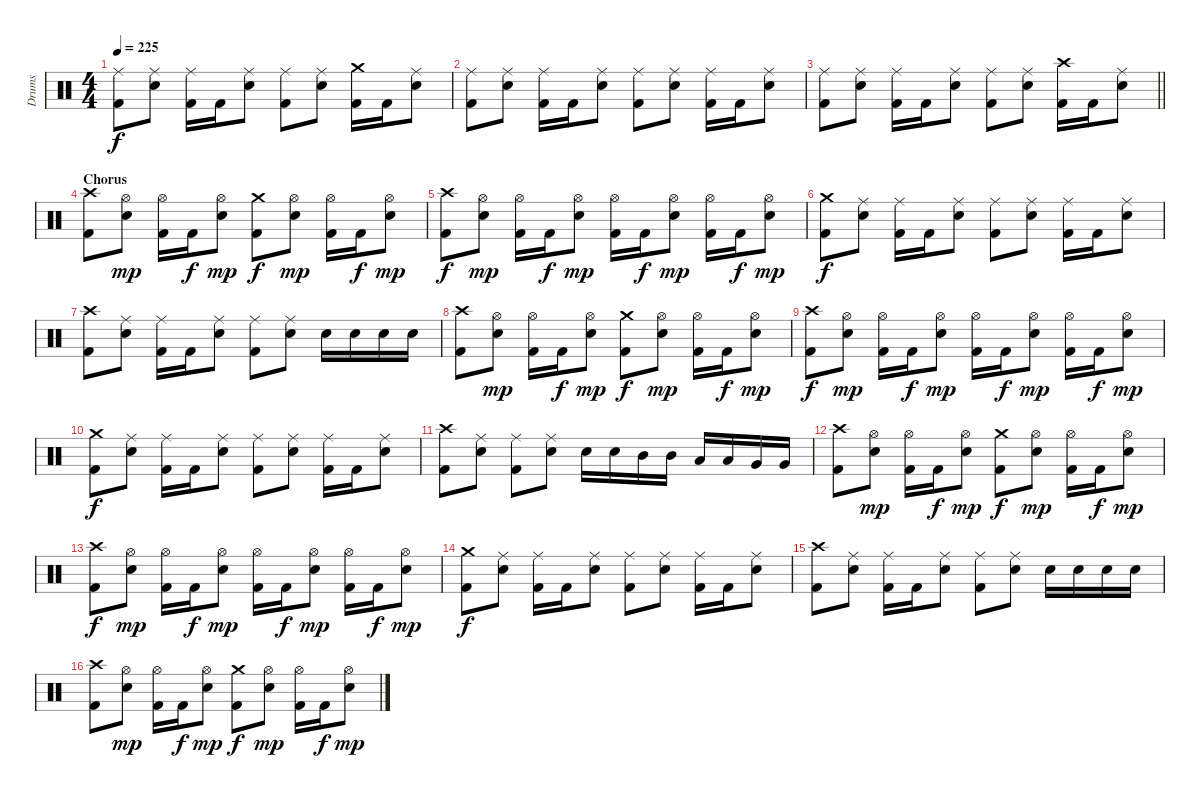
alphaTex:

\track ("Drums" "Drums") {instrument percussion}
\staff {score}
\articulation defaults
\ts (4 4)
\tempo 225
\clef neutral
\ks c
("Ride (middle)" "Kick (hit) 2").8{dy f} ("Ride (middle)" "Snare (hit) 2").8 ("Ride (middle)" "Kick (hit) 2").16 "Kick (hit) 2".16 ("Ride (middle)" "Snare (hit) 2").8 ("Ride (middle)" "Kick (hit) 2").8 ("Ride (middle)" "Snare (hit) 2").8 ("Crash medium (hit)" "Kick (hit) 2").16 "Kick (hit) 2".16 ("Ride (middle)" "Snare (hit) 2").8 |
("Ride (middle)" "Kick (hit) 2").8 ("Ride (middle)" "Snare (hit) 2").8 ("Ride (middle)" "Kick (hit) 2").16 "Kick (hit) 2".16 ("Ride (middle)" "Snare (hit) 2").8 ("Ride (middle)" "Kick (hit) 2").8 ("Ride (middle)" "Snare (hit) 2").8 ("Ride (middle)" "Kick (hit) 2").16 "Kick (hit) 2".16 ("Ride (middle)" "Snare (hit) 2").8 |
\barLineRight lightlight
("Ride (middle)" "Kick (hit) 2").8 ("Ride (middle)" "Snare (hit) 2").8 ("Ride (middle)" "Kick (hit) 2").16 "Kick (hit) 2".16 ("Ride (middle)" "Snare (hit) 2").8 ("Ride (middle)" "Kick (hit) 2").8 ("Ride (middle)" "Snare (hit) 2").8 ("Crash high (hit)" "Kick (hit) 2").16 "Kick (hit) 2".16 ("Ride (middle)" "Snare (hit) 2").8 |
\section ("" "Chorus")
("Crash high (hit)" "Kick (hit) 2").8 ("Hi-Hat (open)" "Snare (hit) 2").8{dy mp} ("Hi-Hat (open)" "Kick (hit) 2").16 "Kick (hit) 2".16{dy f} ("Hi-Hat (open)" "Snare (hit) 2").8{dy mp} ("Crash medium (hit)" "Kick (hit) 2").8{dy f} ("Hi-Hat (open)" "Snare (hit) 2").8{dy mp} ("Hi-Hat (open)" "Kick (hit) 2").16 "Kick (hit) 2".16{dy f} ("Hi-Hat (open)" "Snare (hit) 2").8{dy mp} |
("Crash high (hit)" "Kick (hit) 2").8{dy f} ("Hi-Hat (open)" "Snare (hit) 2").8{dy mp} ("Hi-Hat (open)" "Kick (hit) 2").16 "Kick (hit) 2".16{dy f} ("Hi-Hat (open)" "Snare (hit) 2").8{dy mp} ("Hi-Hat (open)" "Kick (hit) 2").16 "Kick (hit) 2".16{dy f} ("Hi-Hat (open)" "Snare (hit) 2").8{dy mp} ("Hi-Hat (open)" "Kick (hit) 2").16 "Kick (hit) 2".16{dy f} ("Hi-Hat (open)" "Snare (hit) 2").8{dy mp} |
("Crash medium (hit)" "Kick (hit) 2").8{dy f} ("Ride (middle)" "Snare (hit) 2").8 ("Ride (middle)" "Kick (hit) 2").16 "Kick (hit) 2".16 ("Ride (middle)" "Snare (hit) 2").8 ("Ride (middle)" "Kick (hit) 2").8 ("Ride (middle)" "Snare (hit) 2").8 ("Ride (middle)" "Kick (hit) 2").16 "Kick (hit) 2".16 ("Ride (middle)" "Snare (hit) 2").8 |
("Crash high (hit)" "Kick (hit) 2").8 ("Ride (middle)" "Snare (hit) 2").8 ("Ride (middle)" "Kick (hit) 2").16 "Kick (hit) 2".16 ("Ride (middle)" "Snare (hit) 2").8 ("Ride (middle)" "Kick (hit) 2").8 ("Ride (middle)" "Snare (hit) 2").8 "Snare (hit) 2".16 "Snare (hit) 2".16 "Snare (hit) 2".16 "Snare (hit) 2".16 |
("Crash high (hit)" "Kick (hit) 2").8 ("Hi-Hat (open)" "Snare (hit) 2").8{dy mp} ("Hi-Hat (open)" "Kick (hit) 2").16 "Kick (hit) 2".16{dy f} ("Hi-Hat (open)" "Snare (hit) 2").8{dy mp} ("Crash medium (hit)" "Kick (hit) 2").8{dy f} ("Hi-Hat (open)" "Snare (hit) 2").8{dy mp} ("Hi-Hat (open)" "Kick (hit) 2").16 "Kick (hit) 2".16{dy f} ("Hi-Hat (open)" "Snare (hit) 2").8{dy mp} |
("Crash high (hit)" "Kick (hit) 2").8{dy f} ("Hi-Hat (open)" "Snare (hit) 2").8{dy mp} ("Hi-Hat (open)" "Kick (hit) 2").16 "Kick (hit) 2".16{dy f} ("Hi-Hat (open)" "Snare (hit) 2").8{dy mp} ("Hi-Hat (open)" "Kick (hit) 2").16 "Kick (hit) 2".16{dy f} ("Hi-Hat (open)" "Snare (hit) 2").8{dy mp} ("Hi-Hat (open)" "Kick (hit) 2").16 "Kick (hit) 2".16{dy f} ("Hi-Hat (open)" "Snare (hit) 2").8{dy mp} |
("Crash medium (hit)" "Kick (hit) 2").8{dy f} ("Ride (middle)" "Snare (hit) 2").8 ("Ride (middle)" "Kick (hit) 2").16 "Kick (hit) 2".16 ("Ride (middle)" "Snare (hit) 2").8 ("Ride (middle)" "Kick (hit) 2").8 ("Ride (middle)" "Snare (hit) 2").8 ("Ride (middle)" "Kick (hit) 2").16 "Kick (hit) 2".16 ("Ride (middle)" "Snare (hit) 2").8 |
("Crash high (hit)" "Kick (hit) 2").8 ("Ride (middle)" "Snare (hit) 2").8 ("Ride (middle)" "Kick (hit) 2").8 ("Ride (middle)" "Snare (hit) 2").8 "Snare (hit) 2".16 "Snare (hit) 2".16 "Mid Tom (hit)".16 "Mid Tom (hit)".16 "Low Tom (hit)".16 "Low Tom (hit)".16 "Very Low Tom (hit)".16 "Very Low Tom (hit)".16 |
("Crash high (hit)" "Kick (hit) 2").8 ("Hi-Hat (open)" "Snare (hit) 2").8{dy mp} ("Hi-Hat (open)" "Kick (hit) 2").16 "Kick (hit) 2".16{dy f} ("Hi-Hat (open)" "Snare (hit) 2").8{dy mp} ("Crash medium (hit)" "Kick (hit) 2").8{dy f} ("Hi-Hat (open)" "Snare (hit) 2").8{dy mp} ("Hi-Hat (open)" "Kick (hit) 2").16 "Kick (hit) 2".16{dy f} ("Hi-Hat (open)" "Snare (hit) 2").8{dy mp} |
("Crash high (hit)" "Kick (hit) 2").8{dy f} ("Hi-Hat (open)" "Snare (hit) 2").8{dy mp} ("Hi-Hat (open)" "Kick (hit) 2").16 "Kick (hit) 2".16{dy f} ("Hi-Hat (open)" "Snare (hit) 2").8{dy mp} ("Hi-Hat (open)" "Kick (hit) 2").16 "Kick (hit) 2".16{dy f} ("Hi-Hat (open)" "Snare (hit) 2").8{dy mp} ("Hi-Hat (open)" "Kick (hit) 2").16 "Kick (hit) 2".16{dy f} ("Hi-Hat (open)" "Snare (hit) 2").8{dy mp} |
("Crash medium (hit)" "Kick (hit) 2").8{dy f} ("Ride (middle)" "Snare (hit) 2").8 ("Ride (middle)" "Kick (hit) 2").16 "Kick (hit) 2".16 ("Ride (middle)" "Snare (hit) 2").8 ("Ride (middle)" "Kick (hit) 2").8 ("Ride (middle)" "Snare (hit) 2").8 ("Ride (middle)" "Kick (hit) 2").16 "Kick (hit) 2".16 ("Ride (middle)" "Snare (hit) 2").8 |
("Crash high (hit)" "Kick (hit) 2").8 ("Ride (middle)" "Snare (hit) 2").8 ("Ride (middle)" "Kick (hit) 2").16 "Kick (hit) 2".16 ("Ride (middle)" "Snare (hit) 2").8 ("Ride (middle)" "Kick (hit) 2").8 ("Ride (middle)" "Snare (hit) 2").8 "Snare (hit) 2".16 "Snare (hit) 2".16 "Snare (hit) 2".16 "Snare (hit) 2".16 |
("Crash high (hit)" "Kick (hit) 2").8 ("Hi-Hat (open)" "Snare (hit) 2").8{dy mp} ("Hi-Hat (open)" "Kick (hit) 2").16 "Kick (hit) 2".16{dy f} ("Hi-Hat (open)" "Snare (hit) 2").8{dy mp} ("Crash medium (hit)" "Kick (hit) 2").8{dy f} ("Hi-Hat (open)" "Snare (hit) 2").8{dy mp} ("Hi-Hat (open)" "Kick (hit) 2").16 "Kick (hit) 2".16{dy f} ("Hi-Hat (open)" "Snare (hit) 2").8{dy mp}
